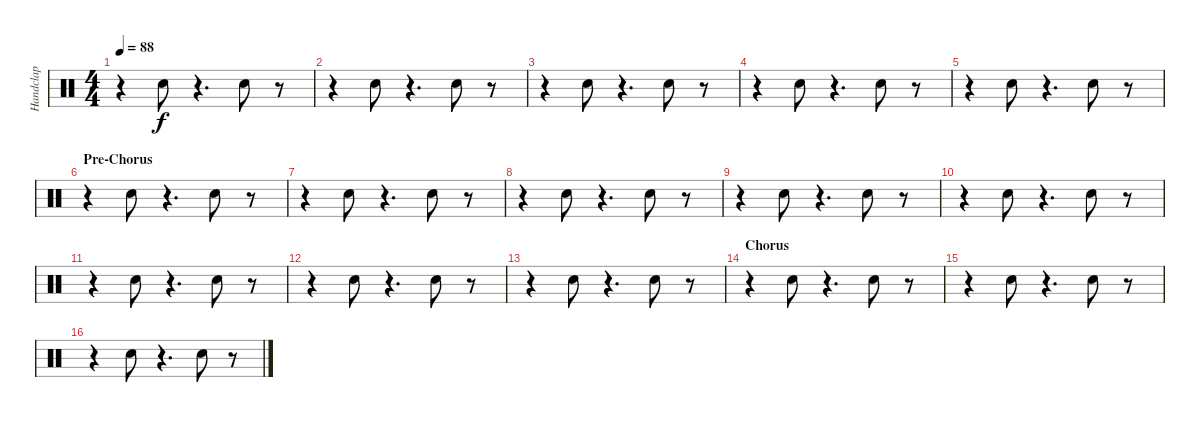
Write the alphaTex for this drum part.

\track ("Handclap" "Handclap") {instrument percussion}
\staff {score}
\articulation defaults
\ts (4 4)
\tempo 88
\clef neutral
\ks c
r.4{dy f} "Hand Clap (hit)".8 r.4{d} "Hand Clap (hit)".8 r.8 |
r.4 "Hand Clap (hit)".8 r.4{d} "Hand Clap (hit)".8 r.8 |
r.4 "Hand Clap (hit)".8 r.4{d} "Hand Clap (hit)".8 r.8 |
r.4 "Hand Clap (hit)".8 r.4{d} "Hand Clap (hit)".8 r.8 |
r.4 "Hand Clap (hit)".8 r.4{d} "Hand Clap (hit)".8 r.8 |
\section ("" "Pre-Chorus")
r.4 "Hand Clap (hit)".8 r.4{d} "Hand Clap (hit)".8 r.8 |
r.4 "Hand Clap (hit)".8 r.4{d} "Hand Clap (hit)".8 r.8 |
r.4 "Hand Clap (hit)".8 r.4{d} "Hand Clap (hit)".8 r.8 |
r.4 "Hand Clap (hit)".8 r.4{d} "Hand Clap (hit)".8 r.8 |
r.4 "Hand Clap (hit)".8 r.4{d} "Hand Clap (hit)".8 r.8 |
r.4 "Hand Clap (hit)".8 r.4{d} "Hand Clap (hit)".8 r.8 |
r.4 "Hand Clap (hit)".8 r.4{d} "Hand Clap (hit)".8 r.8 |
r.4 "Hand Clap (hit)".8 r.4{d} "Hand Clap (hit)".8 r.8 |
\section ("" "Chorus")
r.4 "Hand Clap (hit)".8 r.4{d} "Hand Clap (hit)".8 r.8 |
r.4 "Hand Clap (hit)".8 r.4{d} "Hand Clap (hit)".8 r.8 |
r.4 "Hand Clap (hit)".8 r.4{d} "Hand Clap (hit)".8 r.8
